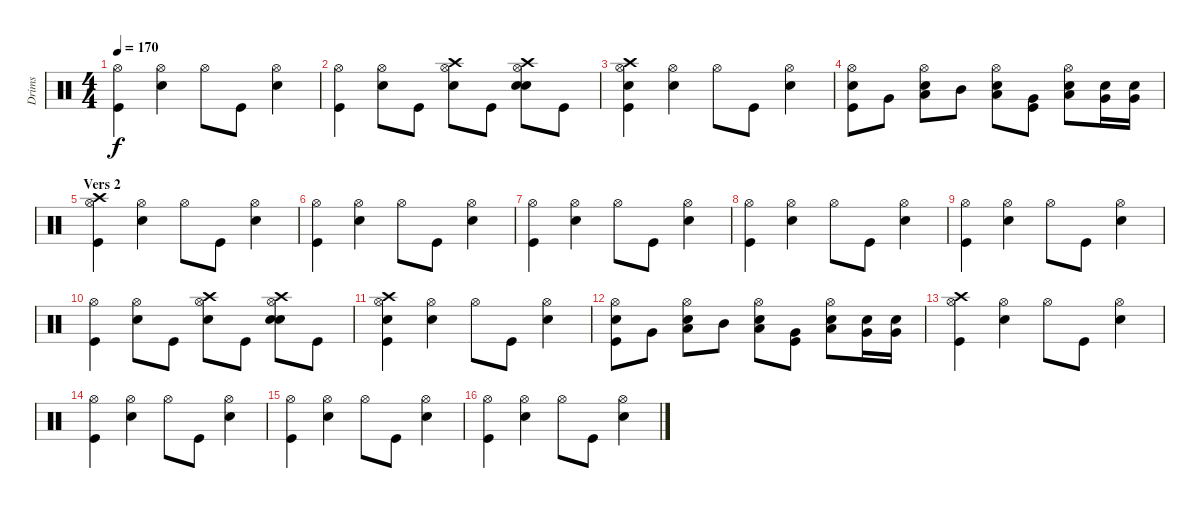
\track ("Drims" "Drims") {instrument percussion}
\staff {score}
\articulation defaults
\ts (4 4)
\tempo 170
\clef neutral
\ks c
("Hi-Hat (open)" "Kick (hit)").4{dy f} ("Hi-Hat (open)" "Electric Snare (hit)").4 "Hi-Hat (open)".8 "Kick (hit)".8 ("Hi-Hat (open)" "Electric Snare (hit)").4 |
("Hi-Hat (open)" "Kick (hit)").4 ("Hi-Hat (open)" "Electric Snare (hit)").8 "Kick (hit)".8 ("Hi-Hat (open)" "Crash high (hit)" "Electric Snare (hit)").8 "Kick (hit)".8 ("Hi-Hat (open)" "Crash high (hit)" "Electric Snare (hit)" "Electric Snare (hit)").8 "Kick (hit)".8 |
("Hi-Hat (open)" "Crash high (hit)" "Electric Snare (hit)" "Kick (hit)").4 ("Hi-Hat (open)" "Electric Snare (hit)").4 "Hi-Hat (open)".8 "Kick (hit)".8 ("Hi-Hat (open)" "Electric Snare (hit)").4 |
("Hi-Hat (open)" "Electric Snare (hit)" "Kick (hit)").8 "Very Low Tom (hit)".8 ("Hi-Hat (open)" "Electric Snare (hit)" "Low Tom (hit)").8 "Mid Tom (hit)".8 ("Hi-Hat (open)" "Electric Snare (hit)" "Low Tom (hit)").8 ("Very Low Tom (hit)" "Kick (hit)").8 ("Hi-Hat (open)" "Electric Snare (hit)" "Low Floor Tom (hit)").8 ("Electric Snare (hit)" "Very Low Tom (hit)").16 ("Electric Snare (hit)" "Very Low Tom (hit)").16 |
\section ("" "Vers 2")
("Hi-Hat (open)" "Crash high (hit)" "Kick (hit)").4 ("Hi-Hat (open)" "Electric Snare (hit)").4 "Hi-Hat (open)".8 "Kick (hit)".8 ("Hi-Hat (open)" "Electric Snare (hit)").4 |
("Hi-Hat (open)" "Kick (hit)").4 ("Hi-Hat (open)" "Electric Snare (hit)").4 "Hi-Hat (open)".8 "Kick (hit)".8 ("Hi-Hat (open)" "Electric Snare (hit)").4 |
("Hi-Hat (open)" "Kick (hit)").4 ("Hi-Hat (open)" "Electric Snare (hit)").4 "Hi-Hat (open)".8 "Kick (hit)".8 ("Hi-Hat (open)" "Electric Snare (hit)").4 |
("Hi-Hat (open)" "Kick (hit)").4 ("Hi-Hat (open)" "Electric Snare (hit)").4 "Hi-Hat (open)".8 "Kick (hit)".8 ("Hi-Hat (open)" "Electric Snare (hit)").4 |
("Hi-Hat (open)" "Kick (hit)").4 ("Hi-Hat (open)" "Electric Snare (hit)").4 "Hi-Hat (open)".8 "Kick (hit)".8 ("Hi-Hat (open)" "Electric Snare (hit)").4 |
("Hi-Hat (open)" "Kick (hit)").4 ("Hi-Hat (open)" "Electric Snare (hit)").8 "Kick (hit)".8 ("Hi-Hat (open)" "Crash high (hit)" "Electric Snare (hit)").8 "Kick (hit)".8 ("Hi-Hat (open)" "Crash high (hit)" "Electric Snare (hit)" "Electric Snare (hit)").8 "Kick (hit)".8 |
("Hi-Hat (open)" "Crash high (hit)" "Electric Snare (hit)" "Kick (hit)").4 ("Hi-Hat (open)" "Electric Snare (hit)").4 "Hi-Hat (open)".8 "Kick (hit)".8 ("Hi-Hat (open)" "Electric Snare (hit)").4 |
("Hi-Hat (open)" "Electric Snare (hit)" "Kick (hit)").8 "Very Low Tom (hit)".8 ("Hi-Hat (open)" "Electric Snare (hit)" "Low Tom (hit)").8 "Mid Tom (hit)".8 ("Hi-Hat (open)" "Electric Snare (hit)" "Low Tom (hit)").8 ("Very Low Tom (hit)" "Kick (hit)").8 ("Hi-Hat (open)" "Electric Snare (hit)" "Low Floor Tom (hit)").8 ("Electric Snare (hit)" "Very Low Tom (hit)").16 ("Electric Snare (hit)" "Very Low Tom (hit)").16 |
("Hi-Hat (open)" "Crash high (hit)" "Kick (hit)").4 ("Hi-Hat (open)" "Electric Snare (hit)").4 "Hi-Hat (open)".8 "Kick (hit)".8 ("Hi-Hat (open)" "Electric Snare (hit)").4 |
("Hi-Hat (open)" "Kick (hit)").4 ("Hi-Hat (open)" "Electric Snare (hit)").4 "Hi-Hat (open)".8 "Kick (hit)".8 ("Hi-Hat (open)" "Electric Snare (hit)").4 |
("Hi-Hat (open)" "Kick (hit)").4 ("Hi-Hat (open)" "Electric Snare (hit)").4 "Hi-Hat (open)".8 "Kick (hit)".8 ("Hi-Hat (open)" "Electric Snare (hit)").4 |
("Hi-Hat (open)" "Kick (hit)").4 ("Hi-Hat (open)" "Electric Snare (hit)").4 "Hi-Hat (open)".8 "Kick (hit)".8 ("Hi-Hat (open)" "Electric Snare (hit)").4
